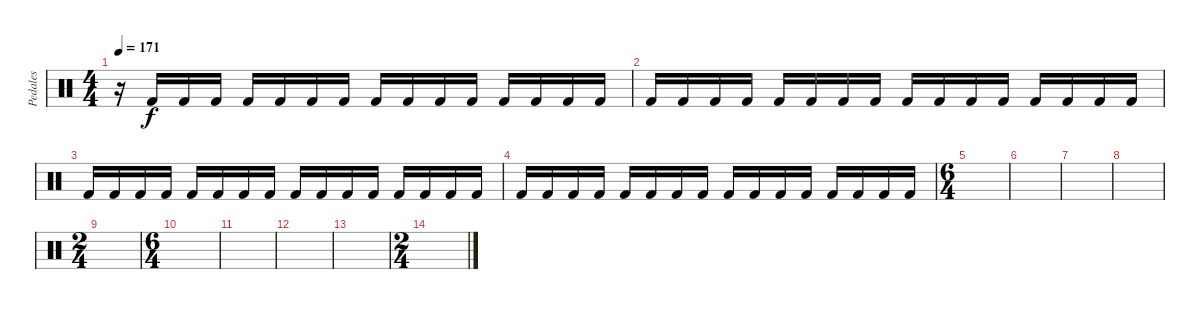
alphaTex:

\track ("Pedales" "Pedales") {instrument percussion}
\staff {score}
\articulation defaults
\ts (4 4)
\tempo 171
\clef neutral
\ks c
r.16{dy f} "Kick (hit) 2".16 "Kick (hit) 2".16 "Kick (hit) 2".16 "Kick (hit) 2".16 "Kick (hit) 2".16 "Kick (hit) 2".16 "Kick (hit) 2".16 "Kick (hit) 2".16 "Kick (hit) 2".16 "Kick (hit) 2".16 "Kick (hit) 2".16 "Kick (hit) 2".16 "Kick (hit) 2".16 "Kick (hit) 2".16 "Kick (hit) 2".16 |
"Kick (hit) 2".16 "Kick (hit) 2".16 "Kick (hit) 2".16 "Kick (hit) 2".16 "Kick (hit) 2".16 "Kick (hit) 2".16 "Kick (hit) 2".16 "Kick (hit) 2".16 "Kick (hit) 2".16 "Kick (hit) 2".16 "Kick (hit) 2".16 "Kick (hit) 2".16 "Kick (hit) 2".16 "Kick (hit) 2".16 "Kick (hit) 2".16 "Kick (hit) 2".16 |
"Kick (hit) 2".16 "Kick (hit) 2".16 "Kick (hit) 2".16 "Kick (hit) 2".16 "Kick (hit) 2".16 "Kick (hit) 2".16 "Kick (hit) 2".16 "Kick (hit) 2".16 "Kick (hit) 2".16 "Kick (hit) 2".16 "Kick (hit) 2".16 "Kick (hit) 2".16 "Kick (hit) 2".16 "Kick (hit) 2".16 "Kick (hit) 2".16 "Kick (hit) 2".16 |
"Kick (hit) 2".16 "Kick (hit) 2".16 "Kick (hit) 2".16 "Kick (hit) 2".16 "Kick (hit) 2".16 "Kick (hit) 2".16 "Kick (hit) 2".16 "Kick (hit) 2".16 "Kick (hit) 2".16 "Kick (hit) 2".16 "Kick (hit) 2".16 "Kick (hit) 2".16 "Kick (hit) 2".16 "Kick (hit) 2".16 "Kick (hit) 2".16 "Kick (hit) 2".16 |
\ts (6 4)
|
|
|
|
\ts (2 4)
|
\ts (6 4)
|
|
|
|
\ts (2 4)
